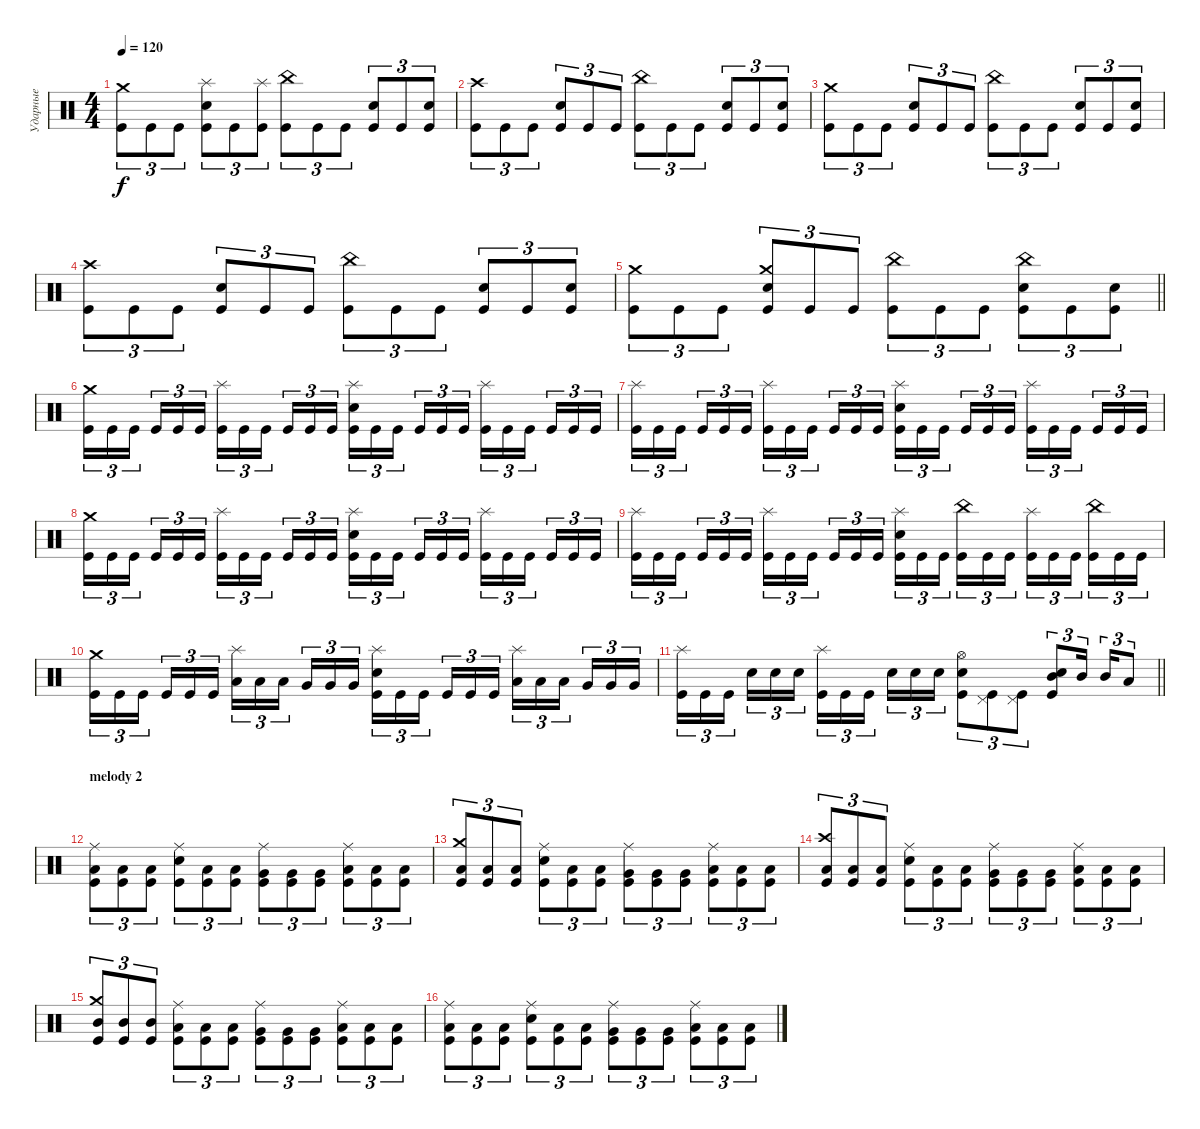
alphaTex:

\track ("Ударные" "Ударные") {instrument percussion}
\staff {score}
\articulation defaults
\ts (4 4)
\tempo 120
\clef neutral
\ks c
("Kick (hit)" "Crash medium (hit)").8{tu (3 2) dy f} "Kick (hit)".8{tu (3 2)} "Kick (hit)".8{tu (3 2)} ("Kick (hit)" "Electric Snare (hit)" "Splash (hit)").8{tu (3 2)} "Kick (hit)".8{tu (3 2)} ("Kick (hit)" "Splash (hit)").8{tu (3 2)} ("Kick (hit)" "China (hit)").8{tu (3 2)} "Kick (hit)".8{tu (3 2)} "Kick (hit)".8{tu (3 2)} ("Kick (hit)" "Electric Snare (hit)").8{tu (3 2)} "Kick (hit)".8{tu (3 2)} ("Kick (hit)" "Electric Snare (hit)").8{tu (3 2)} |
("Kick (hit)" "Crash high (hit)").8{tu (3 2)} "Kick (hit)".8{tu (3 2)} "Kick (hit)".8{tu (3 2)} ("Kick (hit)" "Electric Snare (hit)").8{tu (3 2)} "Kick (hit)".8{tu (3 2)} "Kick (hit)".8{tu (3 2)} ("Kick (hit)" "China (hit)").8{tu (3 2)} "Kick (hit)".8{tu (3 2)} "Kick (hit)".8{tu (3 2)} ("Kick (hit)" "Electric Snare (hit)").8{tu (3 2)} "Kick (hit)".8{tu (3 2)} ("Kick (hit)" "Electric Snare (hit)").8{tu (3 2)} |
("Kick (hit)" "Crash medium (hit)").8{tu (3 2)} "Kick (hit)".8{tu (3 2)} "Kick (hit)".8{tu (3 2)} ("Kick (hit)" "Electric Snare (hit)").8{tu (3 2)} "Kick (hit)".8{tu (3 2)} "Kick (hit)".8{tu (3 2)} ("Kick (hit)" "China (hit)").8{tu (3 2)} "Kick (hit)".8{tu (3 2)} "Kick (hit)".8{tu (3 2)} ("Kick (hit)" "Electric Snare (hit)").8{tu (3 2)} "Kick (hit)".8{tu (3 2)} ("Kick (hit)" "Electric Snare (hit)").8{tu (3 2)} |
("Kick (hit)" "Crash high (hit)").8{tu (3 2)} "Kick (hit)".8{tu (3 2)} "Kick (hit)".8{tu (3 2)} ("Kick (hit)" "Electric Snare (hit)").8{tu (3 2)} "Kick (hit)".8{tu (3 2)} "Kick (hit)".8{tu (3 2)} ("Kick (hit)" "China (hit)").8{tu (3 2)} "Kick (hit)".8{tu (3 2)} "Kick (hit)".8{tu (3 2)} ("Kick (hit)" "Electric Snare (hit)").8{tu (3 2)} "Kick (hit)".8{tu (3 2)} ("Kick (hit)" "Electric Snare (hit)").8{tu (3 2)} |
\barLineRight lightlight
("Kick (hit)" "Crash medium (hit)").8{tu (3 2)} "Kick (hit)".8{tu (3 2)} "Kick (hit)".8{tu (3 2)} ("Kick (hit)" "Electric Snare (hit)" "Crash medium (hit)").8{tu (3 2)} "Kick (hit)".8{tu (3 2)} "Kick (hit)".8{tu (3 2)} ("Kick (hit)" "China (hit)").8{tu (3 2)} "Kick (hit)".8{tu (3 2)} "Kick (hit)".8{tu (3 2)} ("Kick (hit)" "Electric Snare (hit)" "China (hit)").8{tu (3 2)} "Kick (hit)".8{tu (3 2)} ("Kick (hit)" "Electric Snare (hit)").8{tu (3 2)} |
\section ("" " ")
("Kick (hit)" "Crash medium (hit)").16{tu (3 2)} "Kick (hit)".16{tu (3 2)} "Kick (hit)".16{tu (3 2) beam splitsecondary} "Kick (hit)".16{tu (3 2)} "Kick (hit)".16{tu (3 2)} "Kick (hit)".16{tu (3 2)} ("Kick (hit)" "Splash (hit)").16{tu (3 2)} "Kick (hit)".16{tu (3 2)} "Kick (hit)".16{tu (3 2) beam splitsecondary} "Kick (hit)".16{tu (3 2)} "Kick (hit)".16{tu (3 2)} "Kick (hit)".16{tu (3 2)} ("Kick (hit)" "Electric Snare (hit)" "Splash (hit)").16{tu (3 2)} "Kick (hit)".16{tu (3 2)} "Kick (hit)".16{tu (3 2) beam splitsecondary} "Kick (hit)".16{tu (3 2)} "Kick (hit)".16{tu (3 2)} "Kick (hit)".16{tu (3 2)} ("Kick (hit)" "Splash (hit)").16{tu (3 2)} "Kick (hit)".16{tu (3 2)} "Kick (hit)".16{tu (3 2) beam splitsecondary} "Kick (hit)".16{tu (3 2)} "Kick (hit)".16{tu (3 2)} "Kick (hit)".16{tu (3 2)} |
("Kick (hit)" "Splash (hit)").16{tu (3 2)} "Kick (hit)".16{tu (3 2)} "Kick (hit)".16{tu (3 2) beam splitsecondary} "Kick (hit)".16{tu (3 2)} "Kick (hit)".16{tu (3 2)} "Kick (hit)".16{tu (3 2)} ("Kick (hit)" "Splash (hit)").16{tu (3 2)} "Kick (hit)".16{tu (3 2)} "Kick (hit)".16{tu (3 2) beam splitsecondary} "Kick (hit)".16{tu (3 2)} "Kick (hit)".16{tu (3 2)} "Kick (hit)".16{tu (3 2)} ("Kick (hit)" "Electric Snare (hit)" "Splash (hit)").16{tu (3 2)} "Kick (hit)".16{tu (3 2)} "Kick (hit)".16{tu (3 2) beam splitsecondary} "Kick (hit)".16{tu (3 2)} "Kick (hit)".16{tu (3 2)} "Kick (hit)".16{tu (3 2)} ("Kick (hit)" "Splash (hit)").16{tu (3 2)} "Kick (hit)".16{tu (3 2)} "Kick (hit)".16{tu (3 2) beam splitsecondary} "Kick (hit)".16{tu (3 2)} "Kick (hit)".16{tu (3 2)} "Kick (hit)".16{tu (3 2)} |
("Kick (hit)" "Crash medium (hit)").16{tu (3 2)} "Kick (hit)".16{tu (3 2)} "Kick (hit)".16{tu (3 2) beam splitsecondary} "Kick (hit)".16{tu (3 2)} "Kick (hit)".16{tu (3 2)} "Kick (hit)".16{tu (3 2)} ("Kick (hit)" "Splash (hit)").16{tu (3 2)} "Kick (hit)".16{tu (3 2)} "Kick (hit)".16{tu (3 2) beam splitsecondary} "Kick (hit)".16{tu (3 2)} "Kick (hit)".16{tu (3 2)} "Kick (hit)".16{tu (3 2)} ("Kick (hit)" "Electric Snare (hit)" "Splash (hit)").16{tu (3 2)} "Kick (hit)".16{tu (3 2)} "Kick (hit)".16{tu (3 2) beam splitsecondary} "Kick (hit)".16{tu (3 2)} "Kick (hit)".16{tu (3 2)} "Kick (hit)".16{tu (3 2)} ("Kick (hit)" "Splash (hit)").16{tu (3 2)} "Kick (hit)".16{tu (3 2)} "Kick (hit)".16{tu (3 2) beam splitsecondary} "Kick (hit)".16{tu (3 2)} "Kick (hit)".16{tu (3 2)} "Kick (hit)".16{tu (3 2)} |
("Kick (hit)" "Splash (hit)").16{tu (3 2)} "Kick (hit)".16{tu (3 2)} "Kick (hit)".16{tu (3 2) beam splitsecondary} "Kick (hit)".16{tu (3 2)} "Kick (hit)".16{tu (3 2)} "Kick (hit)".16{tu (3 2)} ("Kick (hit)" "Splash (hit)").16{tu (3 2)} "Kick (hit)".16{tu (3 2)} "Kick (hit)".16{tu (3 2) beam splitsecondary} "Kick (hit)".16{tu (3 2)} "Kick (hit)".16{tu (3 2)} "Kick (hit)".16{tu (3 2)} ("Kick (hit)" "Electric Snare (hit)" "Splash (hit)").16{tu (3 2)} "Kick (hit)".16{tu (3 2)} "Kick (hit)".16{tu (3 2) beam splitsecondary} ("Kick (hit)" "China (hit)").16{tu (3 2)} "Kick (hit)".16{tu (3 2)} "Kick (hit)".16{tu (3 2)} ("Kick (hit)" "Splash (hit)").16{tu (3 2)} "Kick (hit)".16{tu (3 2)} "Kick (hit)".16{tu (3 2) beam splitsecondary} ("Kick (hit)" "China (hit)").16{tu (3 2)} "Kick (hit)".16{tu (3 2)} "Kick (hit)".16{tu (3 2)} |
("Kick (hit)" "Crash medium (hit)").16{tu (3 2)} "Kick (hit)".16{tu (3 2)} "Kick (hit)".16{tu (3 2) beam splitsecondary} "Kick (hit)".16{tu (3 2)} "Kick (hit)".16{tu (3 2)} "Kick (hit)".16{tu (3 2)} ("Low Tom (hit)" "Splash (hit)").16{tu (3 2)} "Low Tom (hit)".16{tu (3 2)} "Low Tom (hit)".16{tu (3 2) beam splitsecondary} "Very Low Tom (hit)".16{tu (3 2)} "Very Low Tom (hit)".16{tu (3 2)} "Very Low Tom (hit)".16{tu (3 2)} ("Kick (hit)" "Electric Snare (hit)" "Splash (hit)").16{tu (3 2)} "Kick (hit)".16{tu (3 2)} "Kick (hit)".16{tu (3 2) beam splitsecondary} "Kick (hit)".16{tu (3 2)} "Kick (hit)".16{tu (3 2)} "Kick (hit)".16{tu (3 2)} ("Low Tom (hit)" "Splash (hit)").16{tu (3 2)} "Low Tom (hit)".16{tu (3 2)} "Low Tom (hit)".16{tu (3 2) beam splitsecondary} "Very Low Tom (hit)".16{tu (3 2)} "Very Low Tom (hit)".16{tu (3 2)} "Very Low Tom (hit)".16{tu (3 2)} |
\barLineRight lightlight
("Kick (hit)" "Splash (hit)").16{tu (3 2)} "Kick (hit)".16{tu (3 2)} "Kick (hit)".16{tu (3 2) beam splitsecondary} "Electric Snare (hit)".16{tu (3 2)} "Electric Snare (hit)".16{tu (3 2)} "Electric Snare (hit)".16{tu (3 2)} ("Kick (hit)" "Splash (hit)").16{tu (3 2)} "Kick (hit)".16{tu (3 2)} "Kick (hit)".16{tu (3 2) beam splitsecondary} "Electric Snare (hit)".16{tu (3 2)} "Electric Snare (hit)".16{tu (3 2)} "Electric Snare (hit)".16{tu (3 2)} ("Hi-Hat (open)" "Electric Snare (hit)" "Kick (hit)").8{tu (3 2)} ("Pedal Hi-Hat (hit)" "Kick (hit)").8{tu (3 2)} ("Pedal Hi-Hat (hit)" "Kick (hit)").8{tu (3 2)} ("Mid Tom (hit)" "Kick (hit)" "Electric Snare (hit)").8{tu (3 2)} "Mid Tom (hit)".16{tu (3 2) beam splitsecondary} "Mid Tom (hit)".16{tu (3 2)} "Low Tom (hit)".8{tu (3 2)} |
\section ("" "melody 2")
("Kick (hit)" "Low Floor Tom (hit)" "Ride (middle)").8{tu (3 2)} ("Kick (hit)" "Low Floor Tom (hit)").8{tu (3 2)} ("Kick (hit)" "Low Floor Tom (hit)").8{tu (3 2)} ("Kick (hit)" "Electric Snare (hit)" "Ride (middle)").8{tu (3 2)} ("Kick (hit)" "Low Floor Tom (hit)").8{tu (3 2)} ("Kick (hit)" "Low Floor Tom (hit)").8{tu (3 2)} ("Kick (hit)" "Very Low Tom (hit)" "Ride (middle)").8{tu (3 2)} ("Kick (hit)" "Very Low Tom (hit)").8{tu (3 2)} ("Kick (hit)" "Very Low Tom (hit)").8{tu (3 2)} ("Kick (hit)" "Low Tom (hit)" "Ride (middle)").8{tu (3 2)} ("Kick (hit)" "Low Tom (hit)").8{tu (3 2)} ("Kick (hit)" "Low Tom (hit)").8{tu (3 2)} |
("Kick (hit)" "Low Floor Tom (hit)" "Crash medium (hit)").8{tu (3 2)} ("Kick (hit)" "Low Floor Tom (hit)").8{tu (3 2)} ("Kick (hit)" "Low Floor Tom (hit)").8{tu (3 2)} ("Kick (hit)" "Electric Snare (hit)" "Ride (middle)").8{tu (3 2)} ("Kick (hit)" "Low Floor Tom (hit)").8{tu (3 2)} ("Kick (hit)" "Low Floor Tom (hit)").8{tu (3 2)} ("Kick (hit)" "Very Low Tom (hit)" "Ride (middle)").8{tu (3 2)} ("Kick (hit)" "Very Low Tom (hit)").8{tu (3 2)} ("Kick (hit)" "Very Low Tom (hit)").8{tu (3 2)} ("Kick (hit)" "Low Tom (hit)" "Ride (middle)").8{tu (3 2)} ("Kick (hit)" "Low Tom (hit)").8{tu (3 2)} ("Kick (hit)" "Low Tom (hit)").8{tu (3 2)} |
("Kick (hit)" "Low Floor Tom (hit)" "Crash high (hit)").8{tu (3 2)} ("Kick (hit)" "Low Floor Tom (hit)").8{tu (3 2)} ("Kick (hit)" "Low Floor Tom (hit)").8{tu (3 2)} ("Kick (hit)" "Electric Snare (hit)" "Ride (middle)").8{tu (3 2)} ("Kick (hit)" "Low Floor Tom (hit)").8{tu (3 2)} ("Kick (hit)" "Low Floor Tom (hit)").8{tu (3 2)} ("Kick (hit)" "Very Low Tom (hit)" "Ride (middle)").8{tu (3 2)} ("Kick (hit)" "Very Low Tom (hit)").8{tu (3 2)} ("Kick (hit)" "Very Low Tom (hit)").8{tu (3 2)} ("Kick (hit)" "Low Tom (hit)" "Ride (middle)").8{tu (3 2)} ("Kick (hit)" "Low Tom (hit)").8{tu (3 2)} ("Kick (hit)" "Low Tom (hit)").8{tu (3 2)} |
("Kick (hit)" "Mid Tom (hit)" "Crash medium (hit)").8{tu (3 2)} ("Kick (hit)" "Mid Tom (hit)").8{tu (3 2)} ("Kick (hit)" "Mid Tom (hit)").8{tu (3 2)} ("Kick (hit)" "Low Tom (hit)" "Ride (middle)").8{tu (3 2)} ("Kick (hit)" "Low Tom (hit)").8{tu (3 2)} ("Kick (hit)" "Low Tom (hit)").8{tu (3 2)} ("Kick (hit)" "Very Low Tom (hit)" "Ride (middle)").8{tu (3 2)} ("Kick (hit)" "Very Low Tom (hit)").8{tu (3 2)} ("Kick (hit)" "Very Low Tom (hit)").8{tu (3 2)} ("Kick (hit)" "Low Tom (hit)" "Ride (middle)").8{tu (3 2)} ("Kick (hit)" "Low Tom (hit)").8{tu (3 2)} ("Kick (hit)" "Low Tom (hit)").8{tu (3 2)} |
("Kick (hit)" "Low Floor Tom (hit)" "Ride (middle)").8{tu (3 2)} ("Kick (hit)" "Low Floor Tom (hit)").8{tu (3 2)} ("Kick (hit)" "Low Floor Tom (hit)").8{tu (3 2)} ("Kick (hit)" "Electric Snare (hit)" "Ride (middle)").8{tu (3 2)} ("Kick (hit)" "Low Floor Tom (hit)").8{tu (3 2)} ("Kick (hit)" "Low Floor Tom (hit)").8{tu (3 2)} ("Kick (hit)" "Very Low Tom (hit)" "Ride (middle)").8{tu (3 2)} ("Kick (hit)" "Very Low Tom (hit)").8{tu (3 2)} ("Kick (hit)" "Very Low Tom (hit)").8{tu (3 2)} ("Kick (hit)" "Low Tom (hit)" "Ride (middle)").8{tu (3 2)} ("Kick (hit)" "Low Tom (hit)").8{tu (3 2)} ("Kick (hit)" "Low Tom (hit)").8{tu (3 2)}
